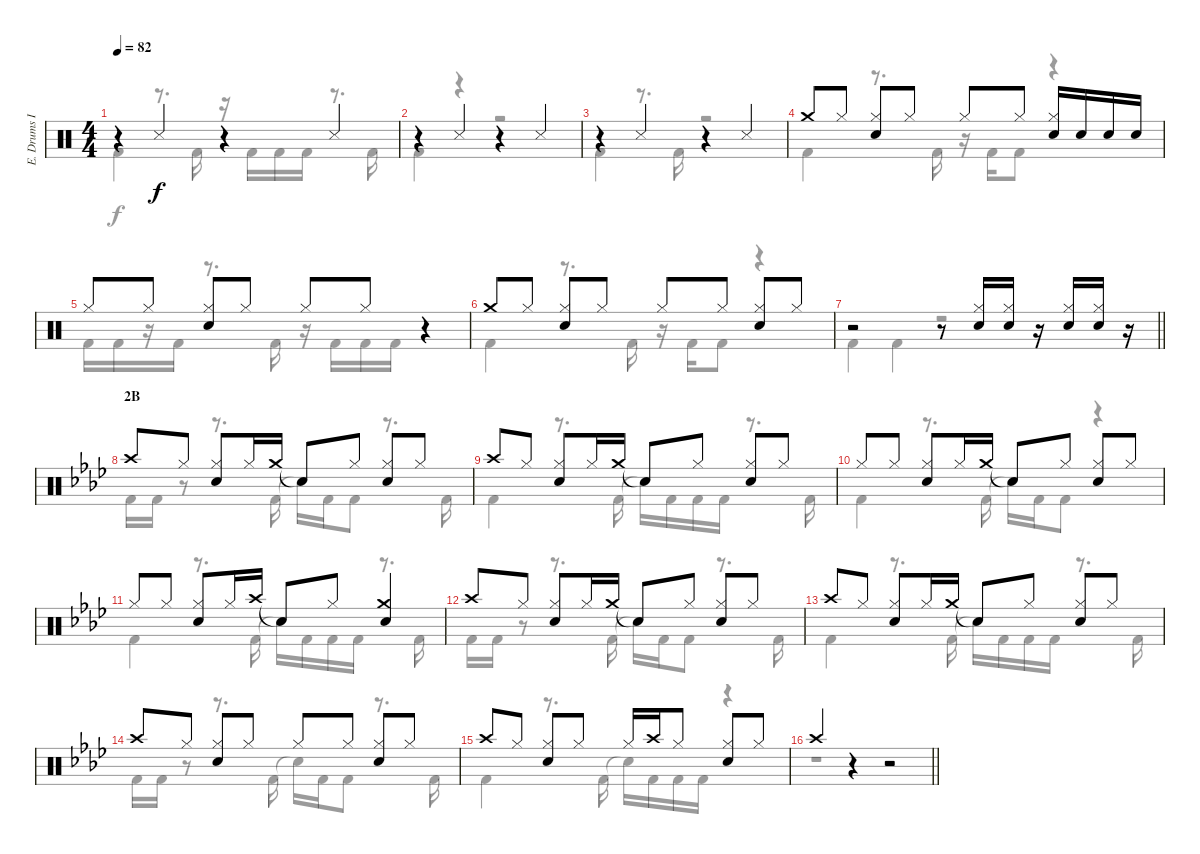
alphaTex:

\track ("E. Drums I" "E. Drums I") {instrument percussion}
\staff {score}
\articulation defaults
\voice
\ts (4 4)
\tempo 82
\clef neutral
\ks c
r.4{dy f} "Snare (side stick) 3".4 r.4 "Snare (side stick) 3".4 |
r.4 "Snare (side stick) 3".4 r.4 "Snare (side stick) 3".4 |
r.4 "Snare (side stick) 3".4 r.4 "Snare (side stick) 3".4 |
"Crash medium (hit)".8 "Hi-Hat (closed)".8 ("Hi-Hat (closed)" "Electric Snare (hit)").8 "Hi-Hat (closed)".8 "Hi-Hat (closed)".8 "Hi-Hat (closed)".8 ("Hi-Hat (closed)" "Electric Snare (hit)").16 "Electric Snare (hit)".16 "Electric Snare (hit)".16 "Electric Snare (hit)".16 |
"Hi-Hat (closed)".8 "Hi-Hat (closed)".8 ("Hi-Hat (closed)" "Electric Snare (hit)").8 "Hi-Hat (closed)".8 "Hi-Hat (closed)".8 "Hi-Hat (closed)".8 r.4 |
"Crash medium (hit)".8 "Hi-Hat (closed)".8 ("Hi-Hat (closed)" "Electric Snare (hit)").8 "Hi-Hat (closed)".8 "Hi-Hat (closed)".8 "Hi-Hat (closed)".8 ("Hi-Hat (closed)" "Electric Snare (hit)").8 "Hi-Hat (closed)".8 |
\barLineRight lightlight
r.2 r.8 ("Hi-Hat (closed)" "Electric Snare (hit)").16 ("Hi-Hat (closed)" "Electric Snare (hit)").16 r.16 ("Hi-Hat (closed)" "Electric Snare (hit)").16 ("Hi-Hat (closed)" "Electric Snare (hit)").16 r.16 |
\section ("" "2B")
\ks ab "Crash high (hit)".8 "Hi-Hat (closed)".8
("Hi-Hat (closed)" "Electric Snare (hit)").8 "Hi-Hat (closed)".16 "Crash medium (hit)".16 "Snare (hit)"{t}.8 "Hi-Hat (closed)".8 ("Hi-Hat (closed)" "Electric Snare (hit)").8 "Hi-Hat (closed)".8 |
"Crash high (hit)".8 "Hi-Hat (closed)".8 ("Hi-Hat (closed)" "Electric Snare (hit)").8 "Hi-Hat (closed)".16 "Crash medium (hit)".16 "Snare (hit)"{t}.8 "Hi-Hat (closed)".8 ("Hi-Hat (closed)" "Electric Snare (hit)").8 "Hi-Hat (closed)".8 |
"Hi-Hat (closed)".8 "Hi-Hat (closed)".8 ("Hi-Hat (closed)" "Electric Snare (hit)").8 "Hi-Hat (closed)".16 "Crash medium (hit)".16 "Snare (hit)"{t}.8 "Hi-Hat (closed)".8 ("Hi-Hat (closed)" "Electric Snare (hit)").8 "Hi-Hat (closed)".8 |
"Hi-Hat (closed)".8 "Hi-Hat (closed)".8 ("Hi-Hat (closed)" "Electric Snare (hit)").8 "Hi-Hat (closed)".16 "Crash high (hit)".16 "Snare (hit)"{t}.8 "Hi-Hat (closed)".8 ("Crash medium (hit)" "Electric Snare (hit)").4 |
"Crash high (hit)".8 "Hi-Hat (closed)".8 ("Hi-Hat (closed)" "Electric Snare (hit)").8 "Hi-Hat (closed)".16 "Crash medium (hit)".16 "Snare (hit)"{t}.8 "Hi-Hat (closed)".8 ("Hi-Hat (closed)" "Electric Snare (hit)").8 "Hi-Hat (closed)".8 |
"Crash high (hit)".8 "Hi-Hat (closed)".8 ("Hi-Hat (closed)" "Electric Snare (hit)").8 "Hi-Hat (closed)".16 "Crash medium (hit)".16 "Snare (hit)"{t}.8 "Hi-Hat (closed)".8 ("Hi-Hat (closed)" "Electric Snare (hit)").8 "Hi-Hat (closed)".8 |
"Crash high (hit)".8 "Hi-Hat (closed)".8 ("Hi-Hat (closed)" "Electric Snare (hit)").8 "Hi-Hat (closed)".8 "Hi-Hat (closed)".8 "Hi-Hat (closed)".8 ("Hi-Hat (closed)" "Electric Snare (hit)").8 "Hi-Hat (closed)".8 |
"Crash high (hit)".8 "Hi-Hat (closed)".8 ("Hi-Hat (closed)" "Electric Snare (hit)").8 "Hi-Hat (closed)".8 "Hi-Hat (closed)".16 "Crash high (hit)".16 "Hi-Hat (closed)".8 ("Hi-Hat (closed)" "Electric Snare (hit)").8 "Hi-Hat (closed)".8 |
\barLineRight lightlight "Crash high (hit)".4
r.4 r.2
\voice
\clef neutral
\ottava regular
\simile none
\ks c "Kick (hit) 2".4{dy f}
r.8{d} "Kick (hit) 2".16 r.16 "Kick (hit) 2".16 "Kick (hit) 2".16 "Kick (hit) 2".16 r.8{d} "Kick (hit) 2".16 |
"Kick (hit) 2".4 r.4 r.2 |
"Kick (hit) 2".4 r.8{d} "Kick (hit) 2".16 r.2 |
"Kick (hit) 2".4 r.8{d} "Kick (hit) 2".16 r.16 "Kick (hit) 2".16 "Kick (hit) 2".8 r.4 |
"Kick (hit) 2".16 "Kick (hit) 2".16 r.16 "Kick (hit) 2".16 r.8{d} "Kick (hit) 2".16 r.16 "Kick (hit) 2".16 "Kick (hit) 2".16 "Kick (hit) 2".16 r.4 |
"Kick (hit) 2".4 r.8{d} "Kick (hit) 2".16 r.16 "Kick (hit) 2".16 "Kick (hit) 2".8 r.4 |
\barLineRight lightlight "Kick (hit) 2".4 "Kick (hit) 2".4
r.2 |
\ks ab "Kick (hit) 2".16 "Kick (hit) 2".16
r.8 r.8{d} "Kick (hit) 2".16 "Snare (hit)"{t}.16 "Kick (hit) 2".16 "Kick (hit) 2".8 r.8{d} "Kick (hit) 2".16 |
"Kick (hit) 2".4 r.8{d} "Kick (hit) 2".16 "Snare (hit)"{t}.16 "Kick (hit) 2".16 "Kick (hit) 2".16 "Kick (hit) 2".16 r.8{d} "Kick (hit) 2".16 |
"Kick (hit) 2".4 r.8{d} "Kick (hit) 2".16 "Snare (hit)"{t}.16 "Kick (hit) 2".16 "Kick (hit) 2".8 r.4 |
"Kick (hit) 2".4 r.8{d} "Kick (hit) 2".16 "Snare (hit)"{t}.16 "Kick (hit) 2".16 "Kick (hit) 2".16 "Kick (hit) 2".16 r.8{d} "Kick (hit) 2".16 |
"Kick (hit) 2".16 "Kick (hit) 2".16 r.8 r.8{d} "Kick (hit) 2".16 "Snare (hit)"{t}.16 "Kick (hit) 2".16 "Kick (hit) 2".8 r.8{d} "Kick (hit) 2".16 |
"Kick (hit) 2".4 r.8{d} "Kick (hit) 2".16 "Snare (hit)"{t}.16 "Kick (hit) 2".16 "Kick (hit) 2".16 "Kick (hit) 2".16 r.8{d} "Kick (hit) 2".16 |
"Kick (hit) 2".16 "Kick (hit) 2".16 r.8 r.8{d} "Kick (hit) 2".16 "Snare (hit)"{t}.16 "Kick (hit) 2".16 "Kick (hit) 2".8 r.8{d} "Kick (hit) 2".16 |
"Kick (hit) 2".4 r.8{d} "Kick (hit) 2".16 "Snare (hit)"{t}.16 "Kick (hit) 2".16 "Kick (hit) 2".16 "Kick (hit) 2".16 r.4 |
\barLineRight lightlight
r.1
